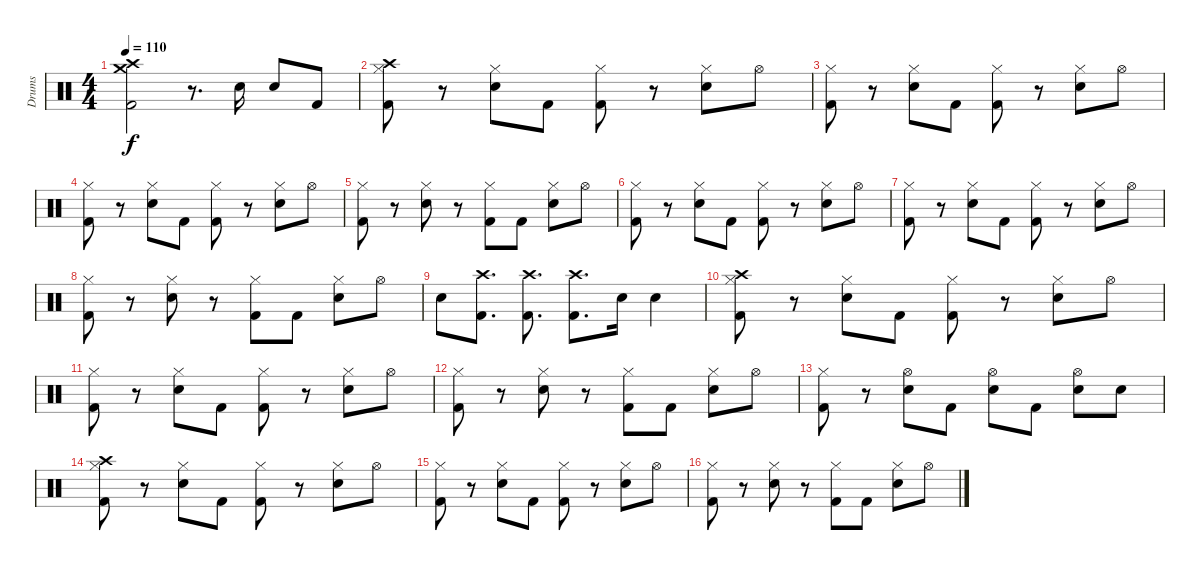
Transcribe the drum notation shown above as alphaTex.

\track ("Drums" "Drums") {instrument percussion}
\staff {score}
\articulation defaults
\ts (4 4)
\tempo 110
\clef neutral
\ks c
("Kick (hit) 2" "Crash medium (hit)" "Crash high (hit)").2{dy f} r.8{d} "Snare (hit) 2".16 "Snare (hit) 2".8 "Kick (hit) 2".8 |
("Hi-Hat (closed)" "Kick (hit) 2" "Crash high (hit)").8 r.8 ("Hi-Hat (closed)" "Snare (hit) 2").8 "Kick (hit) 2".8 ("Hi-Hat (closed)" "Kick (hit) 2").8 r.8 ("Hi-Hat (closed)" "Snare (hit) 2").8 "Hi-Hat (open)".8 |
("Hi-Hat (closed)" "Kick (hit) 2").8 r.8 ("Hi-Hat (closed)" "Snare (hit) 2").8 "Kick (hit) 2".8 ("Hi-Hat (closed)" "Kick (hit) 2").8 r.8 ("Hi-Hat (closed)" "Snare (hit) 2").8 "Hi-Hat (open)".8 |
("Hi-Hat (closed)" "Kick (hit) 2").8 r.8 ("Hi-Hat (closed)" "Snare (hit) 2").8 "Kick (hit) 2".8 ("Hi-Hat (closed)" "Kick (hit) 2").8 r.8 ("Hi-Hat (closed)" "Snare (hit) 2").8 "Hi-Hat (open)".8 |
("Hi-Hat (closed)" "Kick (hit) 2").8 r.8 ("Hi-Hat (closed)" "Snare (hit) 2").8 r.8 ("Hi-Hat (closed)" "Kick (hit) 2").8 "Kick (hit) 2".8 ("Hi-Hat (closed)" "Snare (hit) 2").8 "Hi-Hat (open)".8 |
("Hi-Hat (closed)" "Kick (hit) 2").8 r.8 ("Hi-Hat (closed)" "Snare (hit) 2").8 "Kick (hit) 2".8 ("Hi-Hat (closed)" "Kick (hit) 2").8 r.8 ("Hi-Hat (closed)" "Snare (hit) 2").8 "Hi-Hat (open)".8 |
("Hi-Hat (closed)" "Kick (hit) 2").8 r.8 ("Hi-Hat (closed)" "Snare (hit) 2").8 "Kick (hit) 2".8 ("Hi-Hat (closed)" "Kick (hit) 2").8 r.8 ("Hi-Hat (closed)" "Snare (hit) 2").8 "Hi-Hat (open)".8 |
("Hi-Hat (closed)" "Kick (hit) 2").8 r.8 ("Hi-Hat (closed)" "Snare (hit) 2").8 r.8 ("Hi-Hat (closed)" "Kick (hit) 2").8 "Kick (hit) 2".8 ("Hi-Hat (closed)" "Snare (hit) 2").8 "Hi-Hat (open)".8 |
"Snare (hit) 2".8 ("Kick (hit) 2" "Crash high (hit)").8{d} ("Kick (hit) 2" "Crash high (hit)").8{d} ("Kick (hit) 2" "Crash high (hit)").8{d} "Snare (hit) 2".16 "Snare (hit) 2".4 |
("Hi-Hat (closed)" "Kick (hit) 2" "Crash high (hit)").8 r.8 ("Hi-Hat (closed)" "Snare (hit) 2").8 "Kick (hit) 2".8 ("Hi-Hat (closed)" "Kick (hit) 2").8 r.8 ("Hi-Hat (closed)" "Snare (hit) 2").8 "Hi-Hat (open)".8 |
("Hi-Hat (closed)" "Kick (hit) 2").8 r.8 ("Hi-Hat (closed)" "Snare (hit) 2").8 "Kick (hit) 2".8 ("Hi-Hat (closed)" "Kick (hit) 2").8 r.8 ("Hi-Hat (closed)" "Snare (hit) 2").8 "Hi-Hat (open)".8 |
("Hi-Hat (closed)" "Kick (hit) 2").8 r.8 ("Hi-Hat (closed)" "Snare (hit) 2").8 r.8 ("Hi-Hat (closed)" "Kick (hit) 2").8 "Kick (hit) 2".8 ("Hi-Hat (closed)" "Snare (hit) 2").8 "Hi-Hat (open)".8 |
("Hi-Hat (closed)" "Kick (hit) 2").8 r.8 ("Hi-Hat (open)" "Snare (hit) 2").8 "Kick (hit) 2".8 ("Hi-Hat (open)" "Snare (hit) 2").8 "Kick (hit) 2".8 ("Hi-Hat (open)" "Snare (hit) 2").8 "Snare (hit) 2".8 |
("Hi-Hat (closed)" "Kick (hit) 2" "Crash high (hit)").8 r.8 ("Hi-Hat (closed)" "Snare (hit) 2").8 "Kick (hit) 2".8 ("Hi-Hat (closed)" "Kick (hit) 2").8 r.8 ("Hi-Hat (closed)" "Snare (hit) 2").8 "Hi-Hat (open)".8 |
("Hi-Hat (closed)" "Kick (hit) 2").8 r.8 ("Hi-Hat (closed)" "Snare (hit) 2").8 "Kick (hit) 2".8 ("Hi-Hat (closed)" "Kick (hit) 2").8 r.8 ("Hi-Hat (closed)" "Snare (hit) 2").8 "Hi-Hat (open)".8 |
("Hi-Hat (closed)" "Kick (hit) 2").8 r.8 ("Hi-Hat (closed)" "Snare (hit) 2").8 r.8 ("Hi-Hat (closed)" "Kick (hit) 2").8 "Kick (hit) 2".8 ("Hi-Hat (closed)" "Snare (hit) 2").8 "Hi-Hat (open)".8
